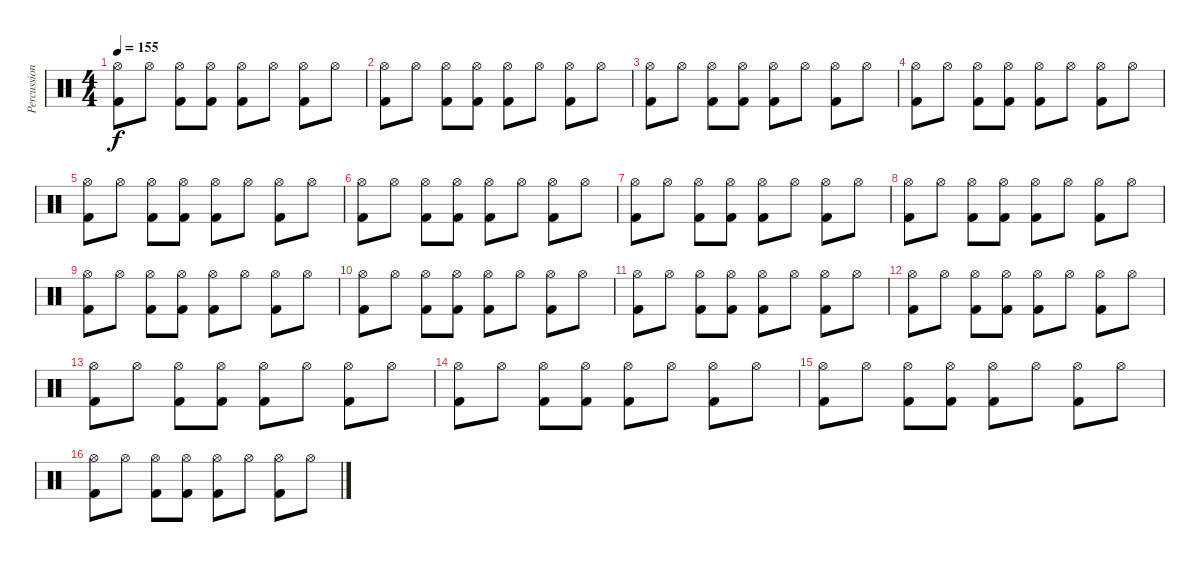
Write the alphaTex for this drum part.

\track ("Percussion" "Percussion") {instrument percussion}
\staff {score}
\articulation defaults
\ts (4 4)
\tempo 155
\clef neutral
\ks c
("Hi-Hat (open)" "Kick (hit) 2").8{dy f} "Hi-Hat (open)".8 ("Hi-Hat (open)" "Kick (hit) 2").8 ("Hi-Hat (open)" "Kick (hit) 2").8 ("Hi-Hat (open)" "Kick (hit) 2").8 "Hi-Hat (open)".8 ("Hi-Hat (open)" "Kick (hit) 2").8 "Hi-Hat (open)".8 |
("Hi-Hat (open)" "Kick (hit) 2").8 "Hi-Hat (open)".8 ("Hi-Hat (open)" "Kick (hit) 2").8 ("Hi-Hat (open)" "Kick (hit) 2").8 ("Hi-Hat (open)" "Kick (hit) 2").8 "Hi-Hat (open)".8 ("Hi-Hat (open)" "Kick (hit) 2").8 "Hi-Hat (open)".8 |
("Hi-Hat (open)" "Kick (hit) 2").8 "Hi-Hat (open)".8 ("Hi-Hat (open)" "Kick (hit) 2").8 ("Hi-Hat (open)" "Kick (hit) 2").8 ("Hi-Hat (open)" "Kick (hit) 2").8 "Hi-Hat (open)".8 ("Hi-Hat (open)" "Kick (hit) 2").8 "Hi-Hat (open)".8 |
("Hi-Hat (open)" "Kick (hit) 2").8 "Hi-Hat (open)".8 ("Hi-Hat (open)" "Kick (hit) 2").8 ("Hi-Hat (open)" "Kick (hit) 2").8 ("Hi-Hat (open)" "Kick (hit) 2").8 "Hi-Hat (open)".8 ("Hi-Hat (open)" "Kick (hit) 2").8 "Hi-Hat (open)".8 |
("Hi-Hat (open)" "Kick (hit) 2").8 "Hi-Hat (open)".8 ("Hi-Hat (open)" "Kick (hit) 2").8 ("Hi-Hat (open)" "Kick (hit) 2").8 ("Hi-Hat (open)" "Kick (hit) 2").8 "Hi-Hat (open)".8 ("Hi-Hat (open)" "Kick (hit) 2").8 "Hi-Hat (open)".8 |
("Hi-Hat (open)" "Kick (hit) 2").8 "Hi-Hat (open)".8 ("Hi-Hat (open)" "Kick (hit) 2").8 ("Hi-Hat (open)" "Kick (hit) 2").8 ("Hi-Hat (open)" "Kick (hit) 2").8 "Hi-Hat (open)".8 ("Hi-Hat (open)" "Kick (hit) 2").8 "Hi-Hat (open)".8 |
("Hi-Hat (open)" "Kick (hit) 2").8 "Hi-Hat (open)".8 ("Hi-Hat (open)" "Kick (hit) 2").8 ("Hi-Hat (open)" "Kick (hit) 2").8 ("Hi-Hat (open)" "Kick (hit) 2").8 "Hi-Hat (open)".8 ("Hi-Hat (open)" "Kick (hit) 2").8 "Hi-Hat (open)".8 |
("Hi-Hat (open)" "Kick (hit) 2").8 "Hi-Hat (open)".8 ("Hi-Hat (open)" "Kick (hit) 2").8 ("Hi-Hat (open)" "Kick (hit) 2").8 ("Hi-Hat (open)" "Kick (hit) 2").8 "Hi-Hat (open)".8 ("Hi-Hat (open)" "Kick (hit) 2").8 "Hi-Hat (open)".8 |
("Hi-Hat (open)" "Kick (hit) 2").8 "Hi-Hat (open)".8 ("Hi-Hat (open)" "Kick (hit) 2").8 ("Hi-Hat (open)" "Kick (hit) 2").8 ("Hi-Hat (open)" "Kick (hit) 2").8 "Hi-Hat (open)".8 ("Hi-Hat (open)" "Kick (hit) 2").8 "Hi-Hat (open)".8 |
("Hi-Hat (open)" "Kick (hit) 2").8 "Hi-Hat (open)".8 ("Hi-Hat (open)" "Kick (hit) 2").8 ("Hi-Hat (open)" "Kick (hit) 2").8 ("Hi-Hat (open)" "Kick (hit) 2").8 "Hi-Hat (open)".8 ("Hi-Hat (open)" "Kick (hit) 2").8 "Hi-Hat (open)".8 |
("Hi-Hat (open)" "Kick (hit) 2").8 "Hi-Hat (open)".8 ("Hi-Hat (open)" "Kick (hit) 2").8 ("Hi-Hat (open)" "Kick (hit) 2").8 ("Hi-Hat (open)" "Kick (hit) 2").8 "Hi-Hat (open)".8 ("Hi-Hat (open)" "Kick (hit) 2").8 "Hi-Hat (open)".8 |
("Hi-Hat (open)" "Kick (hit) 2").8 "Hi-Hat (open)".8 ("Hi-Hat (open)" "Kick (hit) 2").8 ("Hi-Hat (open)" "Kick (hit) 2").8 ("Hi-Hat (open)" "Kick (hit) 2").8 "Hi-Hat (open)".8 ("Hi-Hat (open)" "Kick (hit) 2").8 "Hi-Hat (open)".8 |
("Hi-Hat (open)" "Kick (hit) 2").8 "Hi-Hat (open)".8 ("Hi-Hat (open)" "Kick (hit) 2").8 ("Hi-Hat (open)" "Kick (hit) 2").8 ("Hi-Hat (open)" "Kick (hit) 2").8 "Hi-Hat (open)".8 ("Hi-Hat (open)" "Kick (hit) 2").8 "Hi-Hat (open)".8 |
("Hi-Hat (open)" "Kick (hit) 2").8 "Hi-Hat (open)".8 ("Hi-Hat (open)" "Kick (hit) 2").8 ("Hi-Hat (open)" "Kick (hit) 2").8 ("Hi-Hat (open)" "Kick (hit) 2").8 "Hi-Hat (open)".8 ("Hi-Hat (open)" "Kick (hit) 2").8 "Hi-Hat (open)".8 |
("Hi-Hat (open)" "Kick (hit) 2").8 "Hi-Hat (open)".8 ("Hi-Hat (open)" "Kick (hit) 2").8 ("Hi-Hat (open)" "Kick (hit) 2").8 ("Hi-Hat (open)" "Kick (hit) 2").8 "Hi-Hat (open)".8 ("Hi-Hat (open)" "Kick (hit) 2").8 "Hi-Hat (open)".8 |
("Hi-Hat (open)" "Kick (hit) 2").8 "Hi-Hat (open)".8 ("Hi-Hat (open)" "Kick (hit) 2").8 ("Hi-Hat (open)" "Kick (hit) 2").8 ("Hi-Hat (open)" "Kick (hit) 2").8 "Hi-Hat (open)".8 ("Hi-Hat (open)" "Kick (hit) 2").8 "Hi-Hat (open)".8
